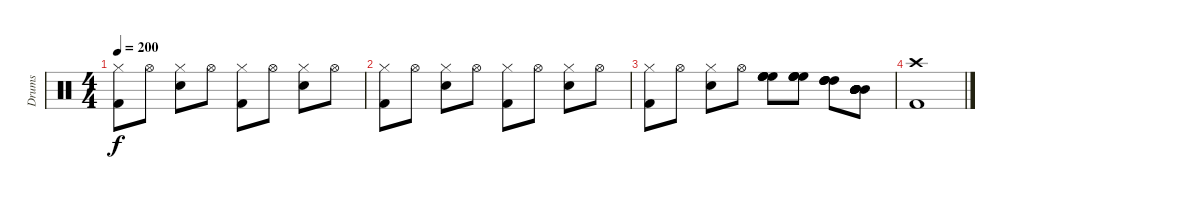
\track ("Drums" "Drums") {instrument percussion}
\staff {score}
\articulation defaults
\ts (4 4)
\tempo 200
\clef neutral
\ks c
("Hi-Hat (closed)" "Kick (hit) 2").8{dy f} "Hi-Hat (open)".8 ("Hi-Hat (closed)" "Snare (hit) 2").8 "Hi-Hat (open)".8 ("Hi-Hat (closed)" "Kick (hit) 2").8 "Hi-Hat (open)".8 ("Hi-Hat (closed)" "Snare (hit) 2").8 "Hi-Hat (open)".8 |
("Hi-Hat (closed)" "Kick (hit) 2").8 "Hi-Hat (open)".8 ("Hi-Hat (closed)" "Snare (hit) 2").8 "Hi-Hat (open)".8 ("Hi-Hat (closed)" "Kick (hit) 2").8 "Hi-Hat (open)".8 ("Hi-Hat (closed)" "Snare (hit) 2").8 "Hi-Hat (open)".8 |
("Hi-Hat (closed)" "Kick (hit) 2").8 "Hi-Hat (open)".8 ("Hi-Hat (closed)" "Snare (hit) 2").8 "Hi-Hat (open)".8 ("High Floor Tom (hit)" "High Floor Tom (hit)" "High Floor Tom (hit)" "High Floor Tom (hit)").8 ("High Floor Tom (hit)" "High Floor Tom (hit)" "High Floor Tom (hit)" "High Floor Tom (hit)").8 ("High Tom (hit)" "High Tom (hit)" "High Tom (hit)" "High Tom (hit)").8 ("Mid Tom (hit)" "Mid Tom (hit)" "Mid Tom (hit)" "Mid Tom (hit)" "Mid Tom (hit)" "Mid Tom (hit)").8 |
("Crash high (hit)" "Kick (hit) 2").1
